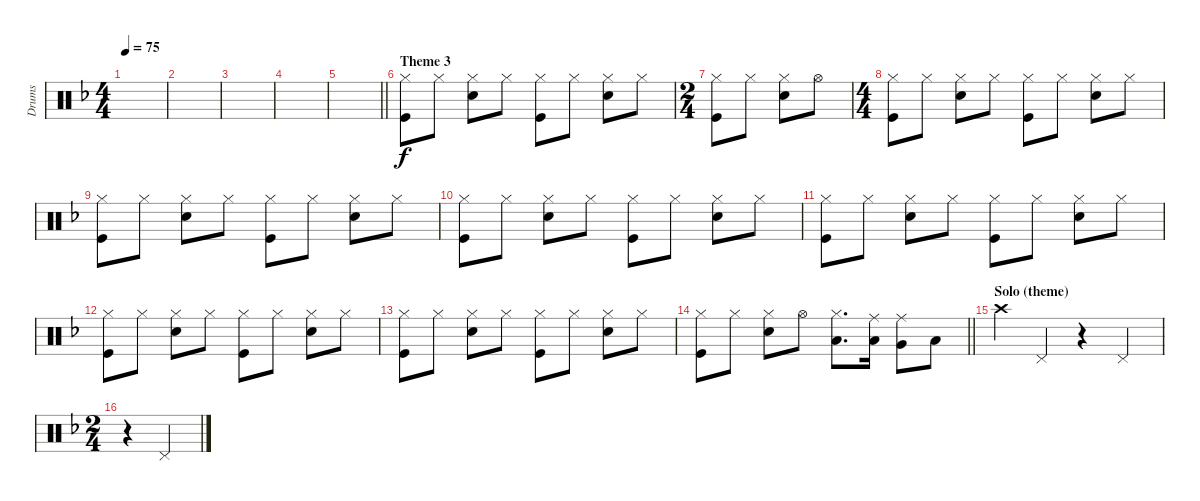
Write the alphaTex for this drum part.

\track ("Drums" "Drums") {instrument percussion}
\staff {score}
\articulation defaults
\ts (4 4)
\tempo 75
\clef neutral
\ks f
|
|
|
|
\barLineRight lightlight
|
\section ("" "Theme 3")
("Kick (hit)" "Hi-Hat (closed)").8 "Hi-Hat (closed)".8 ("Hi-Hat (closed)" "Electric Snare (hit)").8 "Hi-Hat (closed)".8 ("Kick (hit)" "Hi-Hat (closed)").8 "Hi-Hat (closed)".8 ("Hi-Hat (closed)" "Electric Snare (hit)").8 "Hi-Hat (closed)".8 |
\ts (2 4)
("Kick (hit)" "Hi-Hat (closed)").8 "Hi-Hat (closed)".8 ("Hi-Hat (closed)" "Electric Snare (hit)").8 "Hi-Hat (open)".8 |
\ts (4 4)
("Kick (hit)" "Hi-Hat (closed)").8 "Hi-Hat (closed)".8 ("Hi-Hat (closed)" "Electric Snare (hit)").8 "Hi-Hat (closed)".8 ("Kick (hit)" "Hi-Hat (closed)").8 "Hi-Hat (closed)".8 ("Hi-Hat (closed)" "Electric Snare (hit)").8 "Hi-Hat (closed)".8 |
("Kick (hit)" "Hi-Hat (closed)").8 "Hi-Hat (closed)".8 ("Hi-Hat (closed)" "Electric Snare (hit)").8 "Hi-Hat (closed)".8 ("Kick (hit)" "Hi-Hat (closed)").8 "Hi-Hat (closed)".8 ("Hi-Hat (closed)" "Electric Snare (hit)").8 "Hi-Hat (closed)".8 |
("Kick (hit)" "Hi-Hat (closed)").8 "Hi-Hat (closed)".8 ("Hi-Hat (closed)" "Electric Snare (hit)").8 "Hi-Hat (closed)".8 ("Kick (hit)" "Hi-Hat (closed)").8 "Hi-Hat (closed)".8 ("Hi-Hat (closed)" "Electric Snare (hit)").8 "Hi-Hat (closed)".8 |
("Kick (hit)" "Hi-Hat (closed)").8 "Hi-Hat (closed)".8 ("Hi-Hat (closed)" "Electric Snare (hit)").8 "Hi-Hat (closed)".8 ("Kick (hit)" "Hi-Hat (closed)").8 "Hi-Hat (closed)".8 ("Hi-Hat (closed)" "Electric Snare (hit)").8 "Hi-Hat (closed)".8 |
("Kick (hit)" "Hi-Hat (closed)").8 "Hi-Hat (closed)".8 ("Hi-Hat (closed)" "Electric Snare (hit)").8 "Hi-Hat (closed)".8 ("Kick (hit)" "Hi-Hat (closed)").8 "Hi-Hat (closed)".8 ("Hi-Hat (closed)" "Electric Snare (hit)").8 "Hi-Hat (closed)".8 |
("Kick (hit)" "Hi-Hat (closed)").8 "Hi-Hat (closed)".8 ("Hi-Hat (closed)" "Electric Snare (hit)").8 "Hi-Hat (closed)".8 ("Kick (hit)" "Hi-Hat (closed)").8 "Hi-Hat (closed)".8 ("Hi-Hat (closed)" "Electric Snare (hit)").8 "Hi-Hat (closed)".8 |
\barLineRight lightlight
("Kick (hit)" "Hi-Hat (closed)").8 "Hi-Hat (closed)".8 ("Hi-Hat (closed)" "Electric Snare (hit)").8 "Hi-Hat (open)".8 ("Hi-Hat (closed)" "Low Tom (hit)").8{d} ("Ride (middle)" "Low Tom (hit)").16 ("Ride (middle)" "Very Low Tom (hit)").8 "Low Floor Tom (hit)".8 |
\section ("" "Solo (theme)")
"Crash high (hit)".4 "Pedal Hi-Hat (hit)".4 r.4 "Pedal Hi-Hat (hit)".4 |
\ts (2 4)
r.4 "Pedal Hi-Hat (hit)".4
